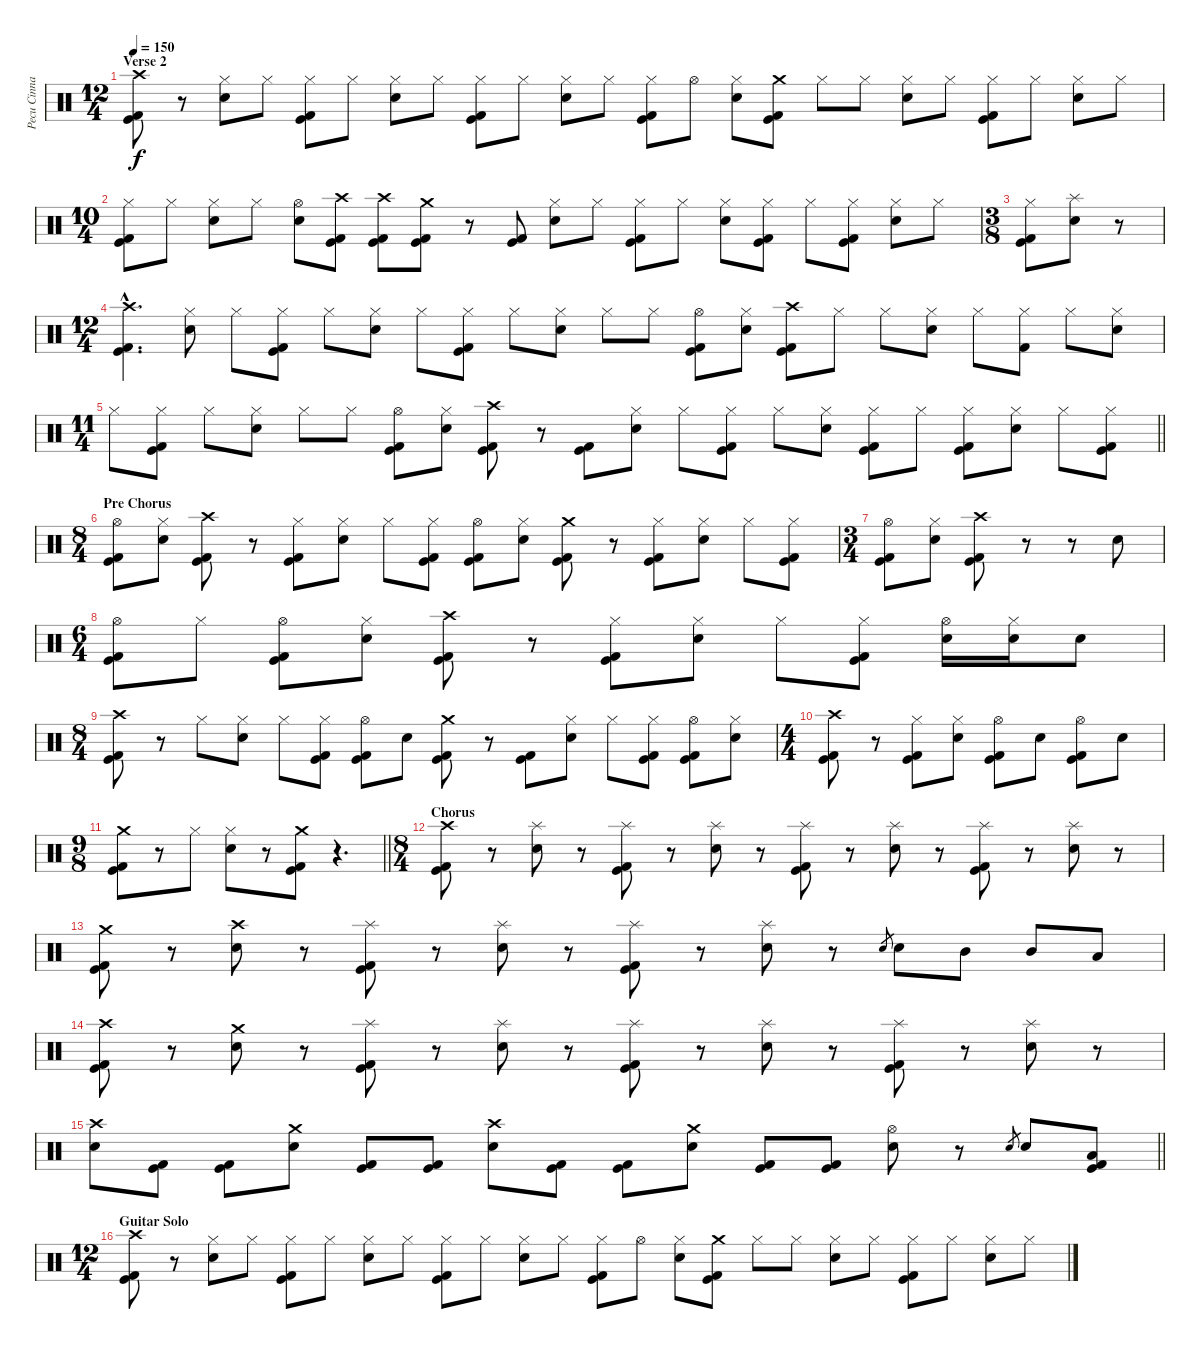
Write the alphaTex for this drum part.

\track ("Pecu Cinnari" "Pecu Cinna") {instrument percussion}
\staff {score}
\articulation defaults
\ts (12 4)
\section ("" "Verse 2")
\tempo 150
\clef neutral
\ks c
("Crash high (hit)" "Kick (hit)" "Kick (hit) 2").8{dy f} r.8 ("Hi-Hat (closed)" "Snare (hit) 2").8 "Hi-Hat (closed)".8 ("Hi-Hat (closed)" "Kick (hit)" "Kick (hit) 2").8 "Hi-Hat (closed)".8 ("Hi-Hat (closed)" "Snare (hit) 2").8 "Hi-Hat (closed)".8 ("Hi-Hat (closed)" "Kick (hit)" "Kick (hit) 2").8 "Hi-Hat (closed)".8 ("Hi-Hat (closed)" "Snare (hit) 2").8 "Hi-Hat (closed)".8 ("Hi-Hat (closed)" "Kick (hit)" "Kick (hit) 2").8 "Hi-Hat (open)".8 ("Hi-Hat (closed)" "Snare (hit) 2").8 ("Crash medium (hit)" "Kick (hit)" "Kick (hit) 2").8 "Hi-Hat (closed)".8 "Hi-Hat (closed)".8 ("Hi-Hat (closed)" "Snare (hit) 2").8 "Hi-Hat (closed)".8 ("Hi-Hat (closed)" "Kick (hit)" "Kick (hit) 2").8 "Hi-Hat (closed)".8 ("Hi-Hat (closed)" "Snare (hit) 2").8 "Hi-Hat (closed)".8 |
\ts (10 4)
("Hi-Hat (closed)" "Kick (hit)" "Kick (hit) 2").8 "Hi-Hat (closed)".8 ("Hi-Hat (closed)" "Snare (hit) 2").8 "Hi-Hat (closed)".8 ("Hi-Hat (open)" "Snare (hit) 2").8 ("Crash high (hit)" "Kick (hit)" "Kick (hit) 2").8 ("Crash high (hit)" "Kick (hit)" "Kick (hit) 2").8 ("Crash medium (hit)" "Kick (hit)" "Kick (hit) 2").8 r.8 ("Kick (hit)" "Kick (hit) 2").8 ("Hi-Hat (closed)" "Snare (hit) 2").8 "Hi-Hat (closed)".8 ("Hi-Hat (closed)" "Kick (hit)" "Kick (hit) 2").8 "Hi-Hat (closed)".8 ("Hi-Hat (closed)" "Snare (hit) 2").8 ("Hi-Hat (closed)" "Kick (hit)" "Kick (hit) 2").8 "Hi-Hat (closed)".8 ("Hi-Hat (closed)" "Kick (hit)" "Kick (hit) 2").8 ("Hi-Hat (closed)" "Snare (hit) 2").8 "Hi-Hat (closed)".8 |
\ts (3 8)
("Hi-Hat (closed)" "Kick (hit)" "Kick (hit) 2").8 ("Splash (hit)" "Snare (hit) 2").8 r.8 |
\ts (12 4)
("Crash high (hit)"{hac} "Kick (hit)"{hac} "Kick (hit) 2"{hac}).4{d} ("Hi-Hat (closed)" "Snare (hit) 2").8 "Hi-Hat (closed)".8 ("Hi-Hat (closed)" "Kick (hit)" "Kick (hit) 2").8 "Hi-Hat (closed)".8 ("Hi-Hat (closed)" "Snare (hit) 2").8 "Hi-Hat (closed)".8 ("Hi-Hat (closed)" "Kick (hit)" "Kick (hit) 2").8 "Hi-Hat (closed)".8 ("Hi-Hat (closed)" "Snare (hit) 2").8 "Hi-Hat (closed)".8 "Hi-Hat (closed)".8 ("Hi-Hat (open)" "Kick (hit)" "Kick (hit) 2").8 ("Hi-Hat (closed)" "Snare (hit) 2").8 ("Crash high (hit)" "Kick (hit)" "Kick (hit) 2").8 "Hi-Hat (closed)".8 "Hi-Hat (closed)".8 ("Hi-Hat (closed)" "Snare (hit) 2").8 "Hi-Hat (closed)".8 ("Hi-Hat (closed)" "Kick (hit) 2").8 "Hi-Hat (closed)".8 ("Hi-Hat (closed)" "Snare (hit) 2").8 |
\ts (11 4)
\barLineRight lightlight "Hi-Hat (closed)".8
("Hi-Hat (closed)" "Kick (hit)" "Kick (hit) 2").8 "Hi-Hat (closed)".8 ("Hi-Hat (closed)" "Snare (hit) 2").8 "Hi-Hat (closed)".8 "Hi-Hat (closed)".8 ("Hi-Hat (open)" "Kick (hit)" "Kick (hit) 2").8 ("Hi-Hat (closed)" "Snare (hit) 2").8 ("Crash high (hit)" "Kick (hit)" "Kick (hit) 2").8 r.8 ("Kick (hit)" "Kick (hit) 2").8 ("Hi-Hat (closed)" "Snare (hit) 2").8 "Hi-Hat (closed)".8 ("Hi-Hat (closed)" "Kick (hit)" "Kick (hit) 2").8 "Hi-Hat (closed)".8 ("Hi-Hat (closed)" "Snare (hit) 2").8 ("Hi-Hat (closed)" "Kick (hit)" "Kick (hit) 2").8 "Hi-Hat (closed)".8 ("Hi-Hat (closed)" "Kick (hit)" "Kick (hit) 2").8 ("Hi-Hat (closed)" "Snare (hit) 2").8 "Hi-Hat (closed)".8 ("Hi-Hat (closed)" "Kick (hit)" "Kick (hit) 2").8 |
\ts (8 4)
\section ("" "Pre Chorus")
("Hi-Hat (open)" "Kick (hit)" "Kick (hit) 2").8 ("Hi-Hat (closed)" "Snare (hit) 2").8 ("Crash high (hit)" "Kick (hit)" "Kick (hit) 2").8 r.8 ("Hi-Hat (closed)" "Kick (hit)" "Kick (hit) 2").8 ("Hi-Hat (closed)" "Snare (hit) 2").8 "Hi-Hat (closed)".8 ("Hi-Hat (closed)" "Kick (hit)" "Kick (hit) 2").8 ("Hi-Hat (open)" "Kick (hit)" "Kick (hit) 2").8 ("Hi-Hat (closed)" "Snare (hit) 2").8 ("Crash medium (hit)" "Kick (hit)" "Kick (hit) 2").8 r.8 ("Hi-Hat (closed)" "Kick (hit)" "Kick (hit) 2").8 ("Hi-Hat (closed)" "Snare (hit) 2").8 "Hi-Hat (closed)".8 ("Hi-Hat (closed)" "Kick (hit)" "Kick (hit) 2").8 |
\ts (3 4)
("Hi-Hat (open)" "Kick (hit)" "Kick (hit) 2").8 ("Hi-Hat (closed)" "Snare (hit) 2").8 ("Crash high (hit)" "Kick (hit)" "Kick (hit) 2").8 r.8 r.8 "Snare (hit) 2".8 |
\ts (6 4)
("Hi-Hat (open)" "Kick (hit)" "Kick (hit) 2").8 "Hi-Hat (closed)".8 ("Hi-Hat (open)" "Kick (hit)" "Kick (hit) 2").8 ("Hi-Hat (closed)" "Snare (hit) 2").8 ("Crash high (hit)" "Kick (hit)" "Kick (hit) 2").8 r.8 ("Hi-Hat (closed)" "Kick (hit)" "Kick (hit) 2").8 ("Hi-Hat (closed)" "Snare (hit) 2").8 "Hi-Hat (closed)".8 ("Hi-Hat (closed)" "Kick (hit)" "Kick (hit) 2").8 ("Hi-Hat (open)" "Snare (hit) 2").16 ("Hi-Hat (closed)" "Snare (hit) 2").16 "Snare (hit) 2".8 |
\ts (8 4)
("Crash high (hit)" "Kick (hit)" "Kick (hit) 2").8 r.8 "Hi-Hat (closed)".8 ("Hi-Hat (closed)" "Snare (hit) 2").8 "Hi-Hat (closed)".8 ("Hi-Hat (closed)" "Kick (hit)" "Kick (hit) 2").8 ("Hi-Hat (open)" "Kick (hit)" "Kick (hit) 2").8 "Snare (hit) 2".8 ("Crash medium (hit)" "Kick (hit)" "Kick (hit) 2").8 r.8 ("Kick (hit)" "Kick (hit) 2").8 ("Hi-Hat (closed)" "Snare (hit) 2").8 "Hi-Hat (closed)".8 ("Hi-Hat (closed)" "Kick (hit)" "Kick (hit) 2").8 ("Hi-Hat (open)" "Kick (hit)" "Kick (hit) 2").8 ("Hi-Hat (closed)" "Snare (hit) 2").8 |
\ts (4 4)
("Crash high (hit)" "Kick (hit)" "Kick (hit) 2").8 r.8 ("Hi-Hat (closed)" "Kick (hit)" "Kick (hit) 2").8 ("Hi-Hat (closed)" "Snare (hit) 2").8 ("Hi-Hat (open)" "Kick (hit)" "Kick (hit) 2").8 "Snare (hit) 2".8 ("Hi-Hat (open)" "Kick (hit)" "Kick (hit) 2").8 "Snare (hit) 2".8 |
\ts (9 8)
\barLineRight lightlight
("Crash medium (hit)" "Kick (hit)" "Kick (hit) 2").8 r.8 "Hi-Hat (closed)".8 ("Hi-Hat (closed)" "Snare (hit) 2").8 r.8 ("Crash medium (hit)" "Kick (hit)" "Kick (hit) 2").8 r.4{d} |
\ts (8 4)
\section ("" "Chorus")
("Crash high (hit)" "Kick (hit)" "Kick (hit) 2").8 r.8 ("Splash (hit)" "Snare (hit) 2").8 r.8 ("Splash (hit)" "Kick (hit)" "Kick (hit) 2").8 r.8 ("Splash (hit)" "Snare (hit) 2").8 r.8 ("Splash (hit)" "Kick (hit)" "Kick (hit) 2").8 r.8 ("Splash (hit)" "Snare (hit) 2").8 r.8 ("Splash (hit)" "Kick (hit)" "Kick (hit) 2").8 r.8 ("Splash (hit)" "Snare (hit) 2").8 r.8 |
("Crash medium (hit)" "Kick (hit)" "Kick (hit) 2").8 r.8 ("Crash high (hit)" "Snare (hit) 2").8 r.8 ("Splash (hit)" "Kick (hit)" "Kick (hit) 2").8 r.8 ("Splash (hit)" "Snare (hit) 2").8 r.8 ("Splash (hit)" "Kick (hit)" "Kick (hit) 2").8 r.8 ("Splash (hit)" "Snare (hit) 2").8 r.8 "Snare (hit) 2".8{gr} "Snare (hit) 2".8 "Mid Tom (hit)".8 "Mid Tom (hit)".8 "Low Tom (hit)".8 |
("Crash high (hit)" "Kick (hit)" "Kick (hit) 2").8 r.8 ("Crash medium (hit)" "Snare (hit) 2").8 r.8 ("Splash (hit)" "Kick (hit)" "Kick (hit) 2").8 r.8 ("Splash (hit)" "Snare (hit) 2").8 r.8 ("Splash (hit)" "Kick (hit)" "Kick (hit) 2").8 r.8 ("Splash (hit)" "Snare (hit) 2").8 r.8 ("Splash (hit)" "Kick (hit)" "Kick (hit) 2").8 r.8 ("Splash (hit)" "Snare (hit) 2").8 r.8 |
\barLineRight lightlight
("Crash high (hit)" "Snare (hit) 2").8 ("Kick (hit)" "Kick (hit) 2").8 ("Kick (hit)" "Kick (hit) 2").8 ("Crash medium (hit)" "Snare (hit) 2").8 ("Kick (hit)" "Kick (hit) 2").8 ("Kick (hit)" "Kick (hit) 2").8 ("Crash high (hit)" "Snare (hit) 2").8 ("Kick (hit)" "Kick (hit) 2").8 ("Kick (hit)" "Kick (hit) 2").8 ("Crash medium (hit)" "Snare (hit) 2").8 ("Kick (hit)" "Kick (hit) 2").8 ("Kick (hit)" "Kick (hit) 2").8 ("Hi-Hat (open)" "Snare (hit) 2").8 r.8 "Snare (hit) 2".8{gr} "Snare (hit) 2".8 ("Low Tom (hit)" "Kick (hit)" "Kick (hit) 2").8 |
\ts (12 4)
\section ("" "Guitar Solo")
("Crash high (hit)" "Kick (hit)" "Kick (hit) 2").8 r.8 ("Hi-Hat (closed)" "Snare (hit) 2").8 "Hi-Hat (closed)".8 ("Hi-Hat (closed)" "Kick (hit)" "Kick (hit) 2").8 "Hi-Hat (closed)".8 ("Hi-Hat (closed)" "Snare (hit) 2").8 "Hi-Hat (closed)".8 ("Hi-Hat (closed)" "Kick (hit)" "Kick (hit) 2").8 "Hi-Hat (closed)".8 ("Hi-Hat (closed)" "Snare (hit) 2").8 "Hi-Hat (closed)".8 ("Hi-Hat (closed)" "Kick (hit)" "Kick (hit) 2").8 "Hi-Hat (open)".8 ("Hi-Hat (closed)" "Snare (hit) 2").8 ("Crash medium (hit)" "Kick (hit)" "Kick (hit) 2").8 "Hi-Hat (closed)".8 "Hi-Hat (closed)".8 ("Hi-Hat (closed)" "Snare (hit) 2").8 "Hi-Hat (closed)".8 ("Hi-Hat (closed)" "Kick (hit)" "Kick (hit) 2").8 "Hi-Hat (closed)".8 ("Hi-Hat (closed)" "Snare (hit) 2").8 "Hi-Hat (closed)".8
